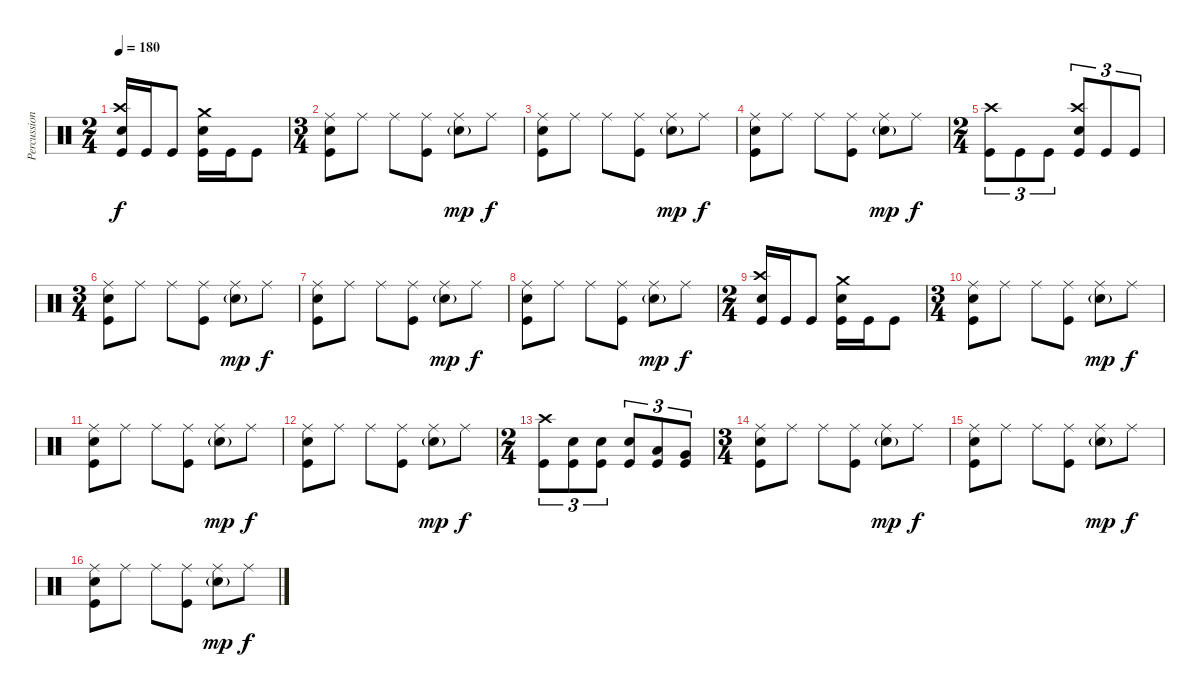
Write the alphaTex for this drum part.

\track ("Percussion" "Percussion") {instrument percussion}
\staff {score}
\articulation defaults
\ts (2 4)
\tempo 180
\clef neutral
\ks c
("Snare (hit) 2" "Crash high (hit)" "Kick (hit)").16{dy f} "Kick (hit)".16 "Kick (hit)".8 ("Snare (hit) 2" "Crash medium (hit)" "Kick (hit)").16 "Kick (hit)".16 "Kick (hit)".8 |
\ts (3 4)
("Snare (hit) 2" "Ride (middle)" "Kick (hit)").8 "Ride (middle)".8 "Ride (middle)".8 ("Ride (middle)" "Kick (hit)").8 ("Ride (middle)" "Snare (hit) 2"{g}).8{dy mp} "Ride (middle)".8{dy f} |
("Snare (hit) 2" "Ride (middle)" "Kick (hit)").8 "Ride (middle)".8 "Ride (middle)".8 ("Ride (middle)" "Kick (hit)").8 ("Ride (middle)" "Snare (hit) 2"{g}).8{dy mp} "Ride (middle)".8{dy f} |
("Snare (hit) 2" "Ride (middle)" "Kick (hit)").8 "Ride (middle)".8 "Ride (middle)".8 ("Ride (middle)" "Kick (hit)").8 ("Ride (middle)" "Snare (hit) 2"{g}).8{dy mp} "Ride (middle)".8{dy f} |
\ts (2 4)
("Crash high (hit)" "Kick (hit)").8{tu (3 2)} "Kick (hit)".8{tu (3 2)} "Kick (hit)".8{tu (3 2)} ("Snare (hit) 2" "Crash high (hit)" "Kick (hit)").8{tu (3 2)} "Kick (hit)".8{tu (3 2)} "Kick (hit)".8{tu (3 2)} |
\ts (3 4)
("Snare (hit) 2" "Ride (middle)" "Kick (hit)").8 "Ride (middle)".8 "Ride (middle)".8 ("Ride (middle)" "Kick (hit)").8 ("Ride (middle)" "Snare (hit) 2"{g}).8{dy mp} "Ride (middle)".8{dy f} |
("Snare (hit) 2" "Ride (middle)" "Kick (hit)").8 "Ride (middle)".8 "Ride (middle)".8 ("Ride (middle)" "Kick (hit)").8 ("Ride (middle)" "Snare (hit) 2"{g}).8{dy mp} "Ride (middle)".8{dy f} |
("Snare (hit) 2" "Ride (middle)" "Kick (hit)").8 "Ride (middle)".8 "Ride (middle)".8 ("Ride (middle)" "Kick (hit)").8 ("Ride (middle)" "Snare (hit) 2"{g}).8{dy mp} "Ride (middle)".8{dy f} |
\ts (2 4)
("Snare (hit) 2" "Crash high (hit)" "Kick (hit)").16 "Kick (hit)".16 "Kick (hit)".8 ("Snare (hit) 2" "Crash medium (hit)" "Kick (hit)").16 "Kick (hit)".16 "Kick (hit)".8 |
\ts (3 4)
("Snare (hit) 2" "Ride (middle)" "Kick (hit)").8 "Ride (middle)".8 "Ride (middle)".8 ("Ride (middle)" "Kick (hit)").8 ("Ride (middle)" "Snare (hit) 2"{g}).8{dy mp} "Ride (middle)".8{dy f} |
("Snare (hit) 2" "Ride (middle)" "Kick (hit)").8 "Ride (middle)".8 "Ride (middle)".8 ("Ride (middle)" "Kick (hit)").8 ("Ride (middle)" "Snare (hit) 2"{g}).8{dy mp} "Ride (middle)".8{dy f} |
("Snare (hit) 2" "Ride (middle)" "Kick (hit)").8 "Ride (middle)".8 "Ride (middle)".8 ("Ride (middle)" "Kick (hit)").8 ("Ride (middle)" "Snare (hit) 2"{g}).8{dy mp} "Ride (middle)".8{dy f} |
\ts (2 4)
("Crash high (hit)" "Kick (hit)").8{tu (3 2)} ("Snare (hit) 2" "Kick (hit)").8{tu (3 2)} ("Snare (hit) 2" "Kick (hit)").8{tu (3 2)} ("Snare (hit) 2" "Kick (hit)").8{tu (3 2)} ("Low Tom (hit)" "Kick (hit)").8{tu (3 2)} ("Very Low Tom (hit)" "Kick (hit)").8{tu (3 2)} |
\ts (3 4)
("Snare (hit) 2" "Ride (middle)" "Kick (hit)").8 "Ride (middle)".8 "Ride (middle)".8 ("Ride (middle)" "Kick (hit)").8 ("Ride (middle)" "Snare (hit) 2"{g}).8{dy mp} "Ride (middle)".8{dy f} |
("Snare (hit) 2" "Ride (middle)" "Kick (hit)").8 "Ride (middle)".8 "Ride (middle)".8 ("Ride (middle)" "Kick (hit)").8 ("Ride (middle)" "Snare (hit) 2"{g}).8{dy mp} "Ride (middle)".8{dy f} |
("Snare (hit) 2" "Ride (middle)" "Kick (hit)").8 "Ride (middle)".8 "Ride (middle)".8 ("Ride (middle)" "Kick (hit)").8 ("Ride (middle)" "Snare (hit) 2"{g}).8{dy mp} "Ride (middle)".8{dy f}
